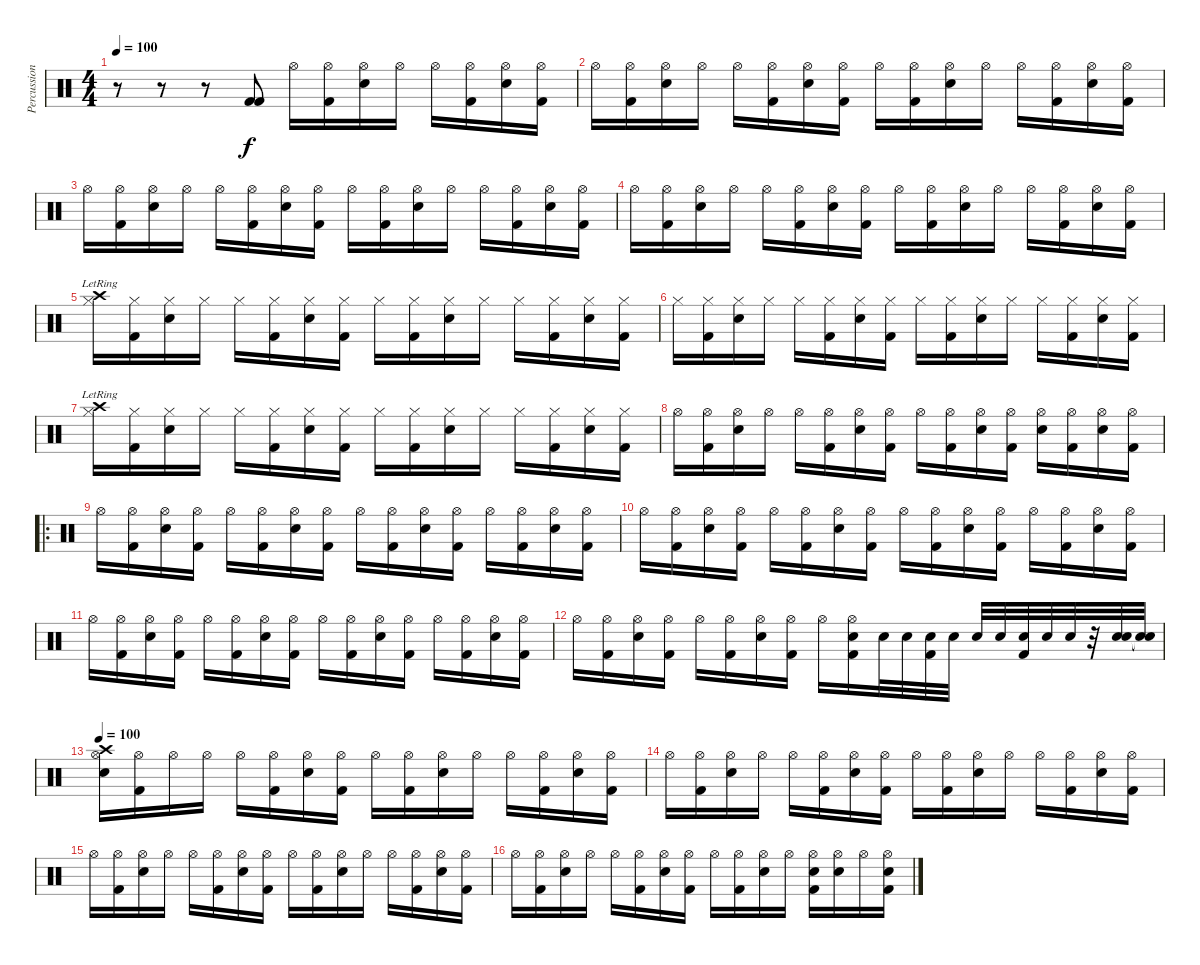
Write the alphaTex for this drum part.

\track ("Percussions" "Percussion") {instrument percussion}
\staff {score}
\articulation defaults
\ts (4 4)
\tempo 100
\clef neutral
\ks c
r.8{dy f} r.8 r.8 ("Kick (hit) 2" "Kick (hit) 2").8 "Hi-Hat (open)".16 ("Kick (hit) 2" "Hi-Hat (open)").16 ("Electric Snare (hit)" "Hi-Hat (open)").16 "Hi-Hat (open)".16 "Hi-Hat (open)".16 ("Kick (hit) 2" "Hi-Hat (open)").16 ("Electric Snare (hit)" "Hi-Hat (open)").16 ("Kick (hit) 2" "Hi-Hat (open)").16 |
"Hi-Hat (open)".16 ("Kick (hit) 2" "Hi-Hat (open)").16 ("Electric Snare (hit)" "Hi-Hat (open)").16 "Hi-Hat (open)".16 "Hi-Hat (open)".16 ("Kick (hit) 2" "Hi-Hat (open)").16 ("Electric Snare (hit)" "Hi-Hat (open)").16 ("Kick (hit) 2" "Hi-Hat (open)").16 "Hi-Hat (open)".16 ("Kick (hit) 2" "Hi-Hat (open)").16 ("Electric Snare (hit)" "Hi-Hat (open)").16 "Hi-Hat (open)".16 "Hi-Hat (open)".16 ("Kick (hit) 2" "Hi-Hat (open)").16 ("Electric Snare (hit)" "Hi-Hat (open)").16 ("Kick (hit) 2" "Hi-Hat (open)").16 |
"Hi-Hat (open)".16 ("Kick (hit) 2" "Hi-Hat (open)").16 ("Electric Snare (hit)" "Hi-Hat (open)").16 "Hi-Hat (open)".16 "Hi-Hat (open)".16 ("Kick (hit) 2" "Hi-Hat (open)").16 ("Electric Snare (hit)" "Hi-Hat (open)").16 ("Kick (hit) 2" "Hi-Hat (open)").16 "Hi-Hat (open)".16 ("Kick (hit) 2" "Hi-Hat (open)").16 ("Electric Snare (hit)" "Hi-Hat (open)").16 "Hi-Hat (open)".16 "Hi-Hat (open)".16 ("Kick (hit) 2" "Hi-Hat (open)").16 ("Electric Snare (hit)" "Hi-Hat (open)").16 ("Kick (hit) 2" "Hi-Hat (open)").16 |
"Hi-Hat (open)".16 ("Kick (hit) 2" "Hi-Hat (open)").16 ("Electric Snare (hit)" "Hi-Hat (open)").16 "Hi-Hat (open)".16 "Hi-Hat (open)".16 ("Kick (hit) 2" "Hi-Hat (open)").16 ("Electric Snare (hit)" "Hi-Hat (open)").16 ("Kick (hit) 2" "Hi-Hat (open)").16 "Hi-Hat (open)".16 ("Kick (hit) 2" "Hi-Hat (open)").16 ("Electric Snare (hit)" "Hi-Hat (open)").16 "Hi-Hat (open)".16 "Hi-Hat (open)".16 ("Kick (hit) 2" "Hi-Hat (open)").16 ("Electric Snare (hit)" "Hi-Hat (open)").16 ("Kick (hit) 2" "Hi-Hat (open)").16 |
("Crash high (hit)"{lr} "Hi-Hat (closed)").16 ("Kick (hit) 2" "Hi-Hat (closed)").16 ("Electric Snare (hit)" "Hi-Hat (closed)").16 "Hi-Hat (closed)".16 "Hi-Hat (closed)".16 ("Kick (hit) 2" "Hi-Hat (closed)").16 ("Electric Snare (hit)" "Hi-Hat (closed)").16 ("Kick (hit) 2" "Hi-Hat (closed)").16 "Hi-Hat (closed)".16 ("Kick (hit) 2" "Hi-Hat (closed)").16 ("Electric Snare (hit)" "Hi-Hat (closed)").16 "Hi-Hat (closed)".16 "Hi-Hat (closed)".16 ("Kick (hit) 2" "Hi-Hat (closed)").16 ("Electric Snare (hit)" "Hi-Hat (closed)").16 ("Kick (hit) 2" "Hi-Hat (closed)").16 |
"Hi-Hat (closed)".16 ("Kick (hit) 2" "Hi-Hat (closed)").16 ("Electric Snare (hit)" "Hi-Hat (closed)").16 "Hi-Hat (closed)".16 "Hi-Hat (closed)".16 ("Kick (hit) 2" "Hi-Hat (closed)").16 ("Electric Snare (hit)" "Hi-Hat (closed)").16 ("Kick (hit) 2" "Hi-Hat (closed)").16 "Hi-Hat (closed)".16 ("Kick (hit) 2" "Hi-Hat (closed)").16 ("Electric Snare (hit)" "Hi-Hat (closed)").16 "Hi-Hat (closed)".16 "Hi-Hat (closed)".16 ("Kick (hit) 2" "Hi-Hat (closed)").16 ("Electric Snare (hit)" "Hi-Hat (closed)").16 ("Kick (hit) 2" "Hi-Hat (closed)").16 |
("Crash high (hit)"{lr} "Hi-Hat (closed)").16 ("Kick (hit) 2" "Hi-Hat (closed)").16 ("Electric Snare (hit)" "Hi-Hat (closed)").16 "Hi-Hat (closed)".16 "Hi-Hat (closed)".16 ("Kick (hit) 2" "Hi-Hat (closed)").16 ("Electric Snare (hit)" "Hi-Hat (closed)").16 ("Kick (hit) 2" "Hi-Hat (closed)").16 "Hi-Hat (closed)".16 ("Kick (hit) 2" "Hi-Hat (closed)").16 ("Electric Snare (hit)" "Hi-Hat (closed)").16 "Hi-Hat (closed)".16 "Hi-Hat (closed)".16 ("Kick (hit) 2" "Hi-Hat (closed)").16 ("Electric Snare (hit)" "Hi-Hat (closed)").16 ("Kick (hit) 2" "Hi-Hat (closed)").16 |
"Hi-Hat (open)".16 ("Kick (hit) 2" "Hi-Hat (open)").16 ("Electric Snare (hit)" "Hi-Hat (open)").16 "Hi-Hat (open)".16 "Hi-Hat (open)".16 ("Kick (hit) 2" "Hi-Hat (open)").16 ("Electric Snare (hit)" "Hi-Hat (open)").16 ("Kick (hit) 2" "Hi-Hat (open)").16 "Hi-Hat (open)".16 ("Kick (hit) 2" "Hi-Hat (open)").16 ("Electric Snare (hit)" "Hi-Hat (open)").16 ("Kick (hit) 2" "Hi-Hat (open)").16 ("Electric Snare (hit)" "Hi-Hat (open)").16 ("Kick (hit) 2" "Hi-Hat (open)").16 ("Electric Snare (hit)" "Hi-Hat (open)").16 ("Kick (hit) 2" "Hi-Hat (open)").16 |
\ro "Hi-Hat (open)".16
("Kick (hit) 2" "Hi-Hat (open)").16 ("Electric Snare (hit)" "Hi-Hat (open)").16 ("Kick (hit) 2" "Hi-Hat (open)").16 "Hi-Hat (open)".16 ("Kick (hit) 2" "Hi-Hat (open)").16 ("Electric Snare (hit)" "Hi-Hat (open)").16 ("Kick (hit) 2" "Hi-Hat (open)").16 "Hi-Hat (open)".16 ("Kick (hit) 2" "Hi-Hat (open)").16 ("Electric Snare (hit)" "Hi-Hat (open)").16 ("Kick (hit) 2" "Hi-Hat (open)").16 "Hi-Hat (open)".16 ("Kick (hit) 2" "Hi-Hat (open)").16 ("Electric Snare (hit)" "Hi-Hat (open)").16 ("Kick (hit) 2" "Hi-Hat (open)").16 |
"Hi-Hat (open)".16 ("Kick (hit) 2" "Hi-Hat (open)").16 ("Electric Snare (hit)" "Hi-Hat (open)").16 ("Kick (hit) 2" "Hi-Hat (open)").16 "Hi-Hat (open)".16 ("Kick (hit) 2" "Hi-Hat (open)").16 ("Electric Snare (hit)" "Hi-Hat (open)").16 ("Kick (hit) 2" "Hi-Hat (open)").16 "Hi-Hat (open)".16 ("Kick (hit) 2" "Hi-Hat (open)").16 ("Electric Snare (hit)" "Hi-Hat (open)").16 ("Kick (hit) 2" "Hi-Hat (open)").16 "Hi-Hat (open)".16 ("Kick (hit) 2" "Hi-Hat (open)").16 ("Electric Snare (hit)" "Hi-Hat (open)").16 ("Kick (hit) 2" "Hi-Hat (open)").16 |
"Hi-Hat (open)".16 ("Kick (hit) 2" "Hi-Hat (open)").16 ("Electric Snare (hit)" "Hi-Hat (open)").16 ("Kick (hit) 2" "Hi-Hat (open)").16 "Hi-Hat (open)".16 ("Kick (hit) 2" "Hi-Hat (open)").16 ("Electric Snare (hit)" "Hi-Hat (open)").16 ("Kick (hit) 2" "Hi-Hat (open)").16 "Hi-Hat (open)".16 ("Kick (hit) 2" "Hi-Hat (open)").16 ("Electric Snare (hit)" "Hi-Hat (open)").16 ("Kick (hit) 2" "Hi-Hat (open)").16 "Hi-Hat (open)".16 ("Kick (hit) 2" "Hi-Hat (open)").16 ("Electric Snare (hit)" "Hi-Hat (open)").16 ("Kick (hit) 2" "Hi-Hat (open)").16 |
"Hi-Hat (open)".16 ("Kick (hit) 2" "Hi-Hat (open)").16 ("Electric Snare (hit)" "Hi-Hat (open)").16 ("Kick (hit) 2" "Hi-Hat (open)").16 "Hi-Hat (open)".16 ("Kick (hit) 2" "Hi-Hat (open)").16 ("Electric Snare (hit)" "Hi-Hat (open)").16 ("Kick (hit) 2" "Hi-Hat (open)").16 "Hi-Hat (open)".16 ("Kick (hit) 2" "Electric Snare (hit)" "Hi-Hat (open)").16 "Electric Snare (hit)".32 "Electric Snare (hit)".32 ("Kick (hit) 2" "Electric Snare (hit)").32 "Electric Snare (hit)".32 "Electric Snare (hit)".32 "Electric Snare (hit)".32 ("Kick (hit) 2" "Electric Snare (hit)").32 "Electric Snare (hit)".32 "Electric Snare (hit)".32 r.32 ("Electric Snare (hit)" "Electric Snare (hit)").32 ("Snare (hit)"{t} "Snare (hit)"{t}).32 |
\tempo 100
("Crash high (hit)" "Electric Snare (hit)" "Hi-Hat (open)").16 ("Kick (hit) 2" "Hi-Hat (open)").16 "Hi-Hat (open)".16 "Hi-Hat (open)".16 "Hi-Hat (open)".16 ("Kick (hit) 2" "Hi-Hat (open)").16 ("Electric Snare (hit)" "Hi-Hat (open)").16 ("Kick (hit) 2" "Hi-Hat (open)").16 "Hi-Hat (open)".16 ("Kick (hit) 2" "Hi-Hat (open)").16 ("Electric Snare (hit)" "Hi-Hat (open)").16 "Hi-Hat (open)".16 "Hi-Hat (open)".16 ("Kick (hit) 2" "Hi-Hat (open)").16 ("Electric Snare (hit)" "Hi-Hat (open)").16 ("Kick (hit) 2" "Hi-Hat (open)").16 |
"Hi-Hat (open)".16 ("Kick (hit) 2" "Hi-Hat (open)").16 ("Electric Snare (hit)" "Hi-Hat (open)").16 "Hi-Hat (open)".16 "Hi-Hat (open)".16 ("Kick (hit) 2" "Hi-Hat (open)").16 ("Electric Snare (hit)" "Hi-Hat (open)").16 ("Kick (hit) 2" "Hi-Hat (open)").16 "Hi-Hat (open)".16 ("Kick (hit) 2" "Hi-Hat (open)").16 ("Electric Snare (hit)" "Hi-Hat (open)").16 "Hi-Hat (open)".16 "Hi-Hat (open)".16 ("Kick (hit) 2" "Hi-Hat (open)").16 ("Electric Snare (hit)" "Hi-Hat (open)").16 ("Kick (hit) 2" "Hi-Hat (open)").16 |
"Hi-Hat (open)".16 ("Kick (hit) 2" "Hi-Hat (open)").16 ("Electric Snare (hit)" "Hi-Hat (open)").16 "Hi-Hat (open)".16 "Hi-Hat (open)".16 ("Kick (hit) 2" "Hi-Hat (open)").16 ("Electric Snare (hit)" "Hi-Hat (open)").16 ("Kick (hit) 2" "Hi-Hat (open)").16 "Hi-Hat (open)".16 ("Kick (hit) 2" "Hi-Hat (open)").16 ("Electric Snare (hit)" "Hi-Hat (open)").16 "Hi-Hat (open)".16 "Hi-Hat (open)".16 ("Kick (hit) 2" "Hi-Hat (open)").16 ("Electric Snare (hit)" "Hi-Hat (open)").16 ("Kick (hit) 2" "Hi-Hat (open)").16 |
"Hi-Hat (open)".16 ("Kick (hit) 2" "Hi-Hat (open)").16 ("Electric Snare (hit)" "Hi-Hat (open)").16 "Hi-Hat (open)".16 "Hi-Hat (open)".16 ("Kick (hit) 2" "Hi-Hat (open)").16 ("Electric Snare (hit)" "Hi-Hat (open)").16 ("Kick (hit) 2" "Hi-Hat (open)").16 "Hi-Hat (open)".16 ("Kick (hit) 2" "Hi-Hat (open)").16 ("Electric Snare (hit)" "Hi-Hat (open)").16 "Hi-Hat (open)".16 ("Kick (hit) 2" "Electric Snare (hit)" "Hi-Hat (open)").16 ("Electric Snare (hit)" "Hi-Hat (open)").16 "Hi-Hat (open)".16 ("Kick (hit) 2" "Electric Snare (hit)" "Hi-Hat (open)").16
